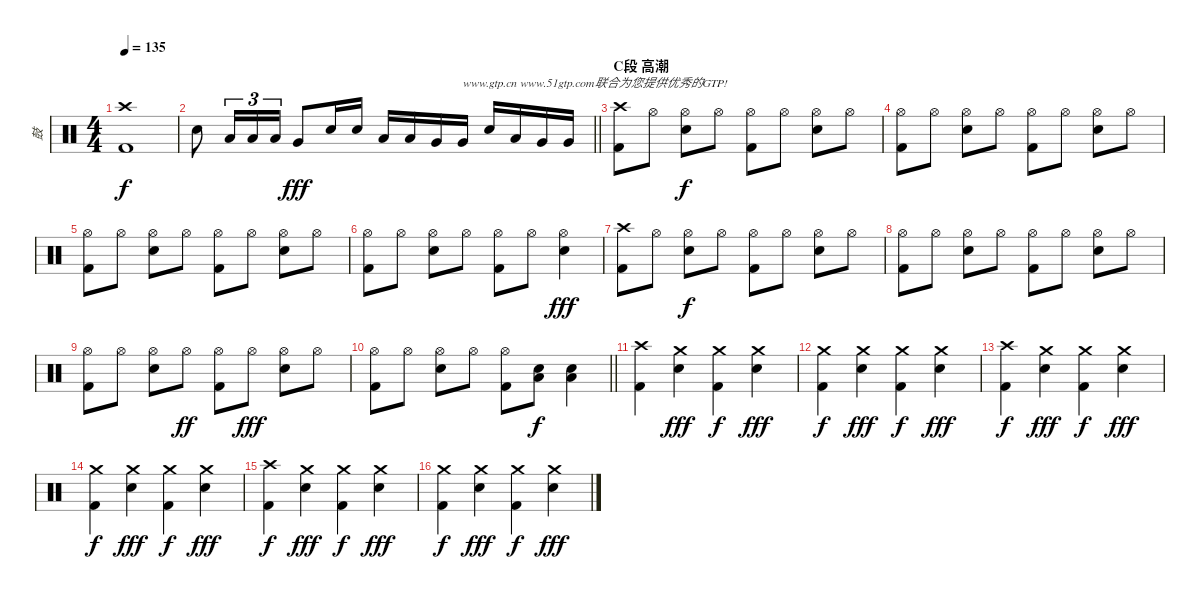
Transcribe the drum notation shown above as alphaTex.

\track ("鼓" "鼓") {instrument percussion}
\staff {score}
\articulation defaults
\ts (4 4)
\tempo 135
\clef neutral
\ks c
("Crash high (hit)" "Kick (hit) 2").1{dy f} |
\barLineRight lightlight "Electric Snare (hit)".8 "Low Tom (hit)".16{tu (3 2)} "Low Tom (hit)".16{tu (3 2)} "Low Tom (hit)".16{tu (3 2)} "Very Low Tom (hit)".8{dy fff} "Electric Snare (hit)".16 "Electric Snare (hit)".16 "Low Tom (hit)".16 "Low Tom (hit)".16 "Very Low Tom (hit)".16 "Very Low Tom (hit)".16{txt "www.gtp.cn www.51gtp.com联合为您提供优秀的GTP!"} "Electric Snare (hit)".16 "Low Tom (hit)".16 "Very Low Tom (hit)".16 "Very Low Tom (hit)".16
|
\section ("" "C段 高潮")
("Crash high (hit)" "Kick (hit) 2").8 "Hi-Hat (open)".8 ("Hi-Hat (open)" "Electric Snare (hit)").8{dy f} "Hi-Hat (open)".8 ("Hi-Hat (open)" "Kick (hit) 2").8 "Hi-Hat (open)".8 ("Hi-Hat (open)" "Electric Snare (hit)").8 "Hi-Hat (open)".8 |
("Hi-Hat (open)" "Kick (hit) 2").8 "Hi-Hat (open)".8 ("Hi-Hat (open)" "Electric Snare (hit)").8 "Hi-Hat (open)".8 ("Hi-Hat (open)" "Kick (hit) 2").8 "Hi-Hat (open)".8 ("Hi-Hat (open)" "Electric Snare (hit)").8 "Hi-Hat (open)".8 |
("Hi-Hat (open)" "Kick (hit) 2").8 "Hi-Hat (open)".8 ("Hi-Hat (open)" "Electric Snare (hit)").8 "Hi-Hat (open)".8 ("Hi-Hat (open)" "Kick (hit) 2").8 "Hi-Hat (open)".8 ("Hi-Hat (open)" "Electric Snare (hit)").8 "Hi-Hat (open)".8 |
("Hi-Hat (open)" "Kick (hit) 2").8 "Hi-Hat (open)".8 ("Hi-Hat (open)" "Electric Snare (hit)").8 "Hi-Hat (open)".8 ("Hi-Hat (open)" "Kick (hit) 2").8 "Hi-Hat (open)".8 ("Hi-Hat (open)" "Electric Snare (hit)").4{dy fff} |
("Crash high (hit)" "Kick (hit) 2").8 "Hi-Hat (open)".8 ("Hi-Hat (open)" "Electric Snare (hit)").8{dy f} "Hi-Hat (open)".8 ("Hi-Hat (open)" "Kick (hit) 2").8 "Hi-Hat (open)".8 ("Hi-Hat (open)" "Electric Snare (hit)").8 "Hi-Hat (open)".8 |
("Hi-Hat (open)" "Kick (hit) 2").8 "Hi-Hat (open)".8 ("Hi-Hat (open)" "Electric Snare (hit)").8 "Hi-Hat (open)".8 ("Hi-Hat (open)" "Kick (hit) 2").8 "Hi-Hat (open)".8 ("Hi-Hat (open)" "Electric Snare (hit)").8 "Hi-Hat (open)".8 |
("Hi-Hat (open)" "Kick (hit) 2").8 "Hi-Hat (open)".8 ("Hi-Hat (open)" "Electric Snare (hit)").8 "Hi-Hat (open)".8{dy ff} ("Hi-Hat (open)" "Kick (hit) 2").8 "Hi-Hat (open)".8{dy fff} ("Hi-Hat (open)" "Electric Snare (hit)").8 "Hi-Hat (open)".8 |
\barLineRight lightlight
("Hi-Hat (open)" "Kick (hit) 2").8 "Hi-Hat (open)".8 ("Hi-Hat (open)" "Electric Snare (hit)").8 "Hi-Hat (open)".8 ("Hi-Hat (open)" "Kick (hit) 2").8 ("Electric Snare (hit)" "Low Tom (hit)").8{dy f} ("Electric Snare (hit)" "Low Tom (hit)").4 |
("Crash high (hit)" "Kick (hit) 2").4 ("Crash medium (hit)" "Electric Snare (hit)").4{dy fff} ("Crash medium (hit)" "Kick (hit) 2").4{dy f} ("Crash medium (hit)" "Electric Snare (hit)").4{dy fff} |
("Crash medium (hit)" "Kick (hit) 2").4{dy f} ("Crash medium (hit)" "Electric Snare (hit)").4{dy fff} ("Crash medium (hit)" "Kick (hit) 2").4{dy f} ("Crash medium (hit)" "Electric Snare (hit)").4{dy fff} |
("Crash high (hit)" "Kick (hit) 2").4{dy f} ("Crash medium (hit)" "Electric Snare (hit)").4{dy fff} ("Crash medium (hit)" "Kick (hit) 2").4{dy f} ("Crash medium (hit)" "Electric Snare (hit)").4{dy fff} |
("Crash medium (hit)" "Kick (hit) 2").4{dy f} ("Crash medium (hit)" "Electric Snare (hit)").4{dy fff} ("Crash medium (hit)" "Kick (hit) 2").4{dy f} ("Crash medium (hit)" "Electric Snare (hit)").4{dy fff} |
("Crash high (hit)" "Kick (hit) 2").4{dy f} ("Crash medium (hit)" "Electric Snare (hit)").4{dy fff} ("Crash medium (hit)" "Kick (hit) 2").4{dy f} ("Crash medium (hit)" "Electric Snare (hit)").4{dy fff} |
("Crash medium (hit)" "Kick (hit) 2").4{dy f} ("Crash medium (hit)" "Electric Snare (hit)").4{dy fff} ("Crash medium (hit)" "Kick (hit) 2").4{dy f} ("Crash medium (hit)" "Electric Snare (hit)").4{dy fff}
